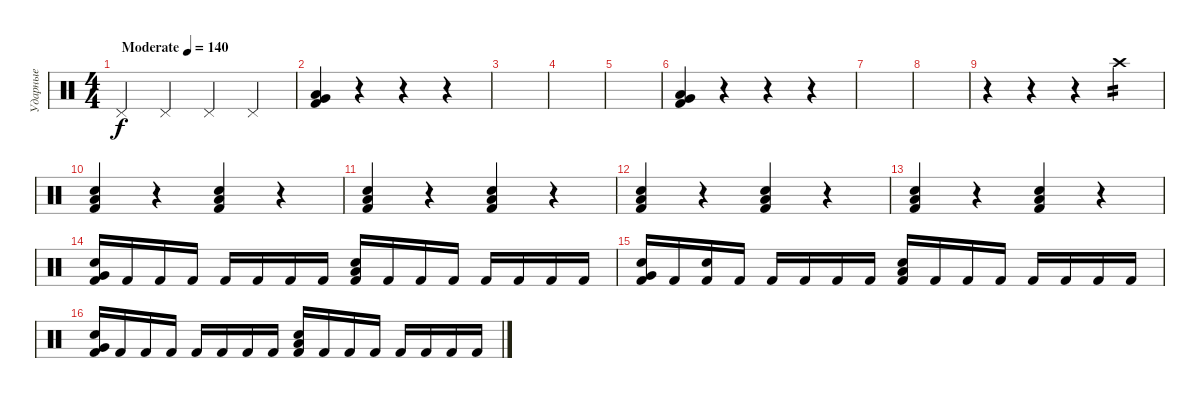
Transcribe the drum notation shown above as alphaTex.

\track ("Ударные" "Ударные") {instrument percussion}
\staff {score}
\articulation defaults
\ts (4 4)
\tempo (140 "Moderate")
\clef neutral
\ks c "Pedal Hi-Hat (hit)".4{dy f} "Pedal Hi-Hat (hit)".4 "Pedal Hi-Hat (hit)".4 "Pedal Hi-Hat (hit)".4
|
("Kick (hit) 2" "Very Low Tom (hit)" "Low Floor Tom (hit)").4 r.4 r.4 r.4 |
|
|
|
("Kick (hit) 2" "Very Low Tom (hit)" "Low Floor Tom (hit)").4 r.4 r.4 r.4 |
|
|
r.4 r.4 r.4 "Crash high (hit)".4{tp 2} |
("Snare (hit) 2" "Low Floor Tom (hit)" "Kick (hit) 2").4 r.4 ("Snare (hit) 2" "Low Floor Tom (hit)" "Kick (hit) 2").4 r.4 |
("Snare (hit) 2" "Low Floor Tom (hit)" "Kick (hit) 2").4 r.4 ("Snare (hit) 2" "Low Floor Tom (hit)" "Kick (hit) 2").4 r.4 |
("Snare (hit) 2" "Low Floor Tom (hit)" "Kick (hit) 2").4 r.4 ("Snare (hit) 2" "Low Floor Tom (hit)" "Kick (hit) 2").4 r.4 |
("Snare (hit) 2" "Low Floor Tom (hit)" "Kick (hit) 2").4 r.4 ("Snare (hit) 2" "Low Floor Tom (hit)" "Kick (hit) 2").4 r.4 |
("Snare (hit) 2" "Very Low Tom (hit)" "Kick (hit) 2").16 "Kick (hit) 2".16 "Kick (hit) 2".16 "Kick (hit) 2".16 "Kick (hit) 2".16 "Kick (hit) 2".16 "Kick (hit) 2".16 "Kick (hit) 2".16 ("Snare (hit) 2" "Low Floor Tom (hit)" "Kick (hit) 2").16 "Kick (hit) 2".16 "Kick (hit) 2".16 "Kick (hit) 2".16 "Kick (hit) 2".16 "Kick (hit) 2".16 "Kick (hit) 2".16 "Kick (hit) 2".16 |
("Snare (hit) 2" "Very Low Tom (hit)" "Kick (hit) 2").16 "Kick (hit) 2".16 ("Snare (hit) 2" "Kick (hit) 2").16 "Kick (hit) 2".16 "Kick (hit) 2".16 "Kick (hit) 2".16 "Kick (hit) 2".16 "Kick (hit) 2".16 ("Snare (hit) 2" "Low Floor Tom (hit)" "Kick (hit) 2").16 "Kick (hit) 2".16 "Kick (hit) 2".16 "Kick (hit) 2".16 "Kick (hit) 2".16 "Kick (hit) 2".16 "Kick (hit) 2".16 "Kick (hit) 2".16 |
("Snare (hit) 2" "Very Low Tom (hit)" "Kick (hit) 2").16 "Kick (hit) 2".16 "Kick (hit) 2".16 "Kick (hit) 2".16 "Kick (hit) 2".16 "Kick (hit) 2".16 "Kick (hit) 2".16 "Kick (hit) 2".16 ("Snare (hit) 2" "Low Floor Tom (hit)" "Kick (hit) 2").16 "Kick (hit) 2".16 "Kick (hit) 2".16 "Kick (hit) 2".16 "Kick (hit) 2".16 "Kick (hit) 2".16 "Kick (hit) 2".16 "Kick (hit) 2".16
